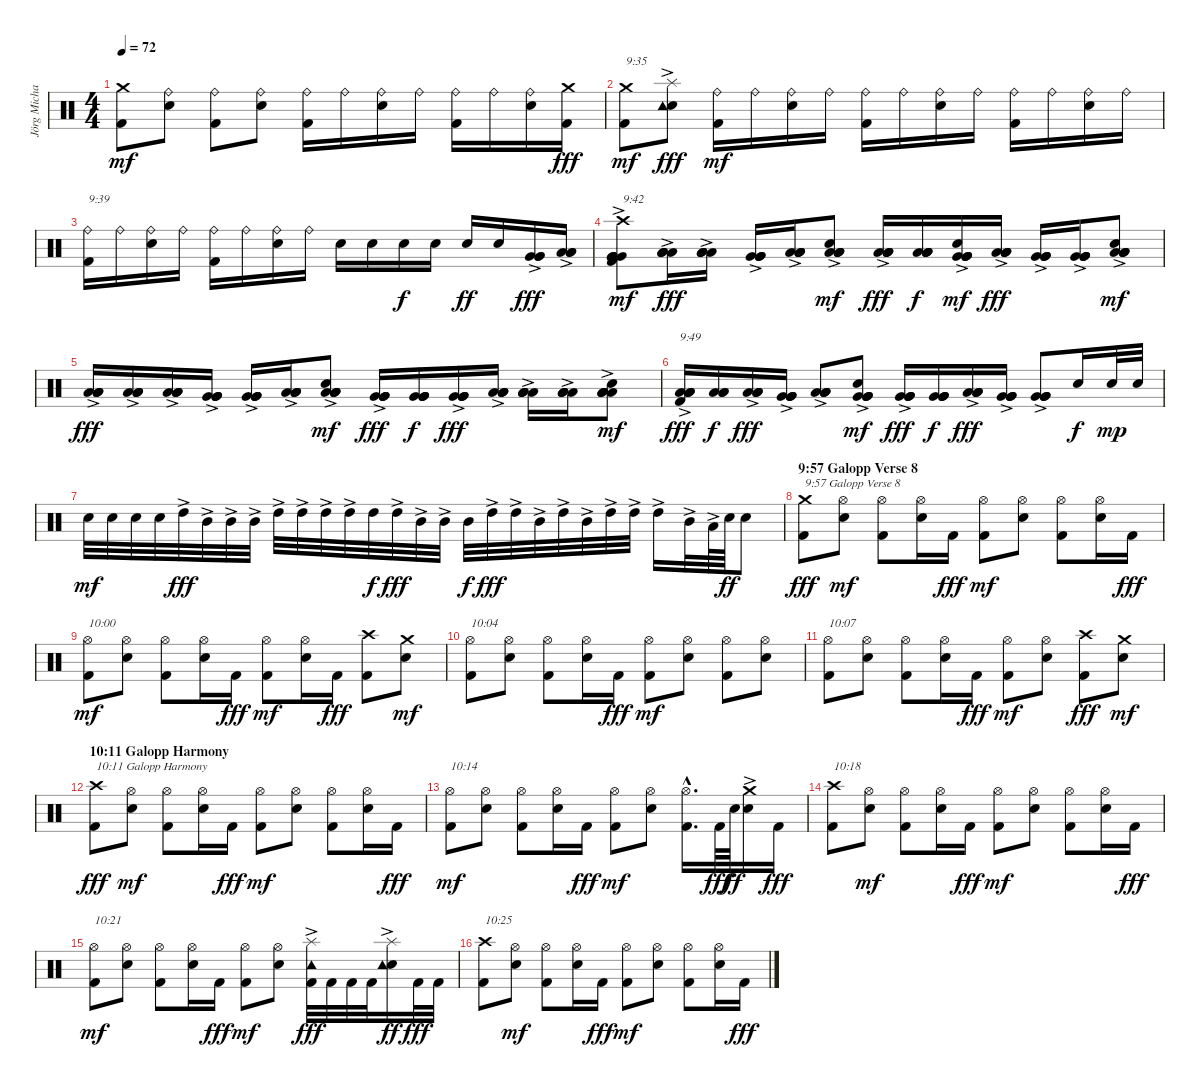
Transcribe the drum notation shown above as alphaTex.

\track ("Jörg Michael" "Jörg Micha") {instrument percussion}
\staff {score}
\articulation defaults
\ts (4 4)
\tempo 72
\clef neutral
\ks c
("Kick (hit) 2" "Crash medium (hit)").8{dy mf} ("Snare (hit) 2" "Ride (bell)").8 ("Kick (hit) 2" "Ride (bell)").8 ("Snare (hit) 2" "Ride (bell)").8 ("Kick (hit) 2" "Ride (bell)").16 "Ride (bell)".16 ("Snare (hit) 2" "Ride (bell)").16 "Ride (bell)".16 ("Kick (hit) 2" "Ride (bell)").16 "Ride (bell)".16 ("Snare (hit) 2" "Ride (bell)").16 ("Kick (hit) 2" "Crash medium (hit)").16{dy fff} |
("Kick (hit) 2" "Crash medium (hit)").8{txt "9:35" dy mf} ("Snare (hit) 2" "Tambourine (hit)" "Splash (hit)"{ac}).8{dy fff} ("Kick (hit) 2" "Ride (bell)").16{dy mf} "Ride (bell)".16 ("Snare (hit) 2" "Ride (bell)").16 "Ride (bell)".16 ("Kick (hit) 2" "Ride (bell)").16 "Ride (bell)".16 ("Snare (hit) 2" "Ride (bell)").16 "Ride (bell)".16 ("Kick (hit) 2" "Ride (bell)").16 "Ride (bell)".16 ("Snare (hit) 2" "Ride (bell)").16 "Ride (bell)".16 |
("Kick (hit) 2" "Ride (bell)").16{txt "9:39"} "Ride (bell)".16 ("Snare (hit) 2" "Ride (bell)").16 "Ride (bell)".16 ("Kick (hit) 2" "Ride (bell)").16 "Ride (bell)".16 ("Snare (hit) 2" "Ride (bell)").16 "Ride (bell)".16 "Snare (hit) 2".16 "Snare (hit) 2".16 "Snare (hit) 2".16{dy f} "Snare (hit) 2".16 "Snare (hit) 2".16{dy ff} "Snare (hit) 2".16 ("Very Low Tom (hit)"{ac} "Very Low Tom (hit)"{ac} "Very Low Tom (hit)"{ac}).16{dy fff} ("Low Tom (hit)"{ac} "Low Tom (hit)"{ac} "Low Tom (hit)"{ac}).16 |
("Kick (hit) 2" "Very Low Tom (hit)"{ac} "Very Low Tom (hit)"{ac} "Very Low Tom (hit)"{ac} "Very Low Tom (hit)"{ac} "Crash high (hit)").8{txt "9:42" dy mf} ("Low Tom (hit)"{ac} "Low Tom (hit)"{ac} "Low Tom (hit)"{ac} "Low Tom (hit)"{ac}).16{dy fff} ("Low Tom (hit)"{ac} "Low Tom (hit)"{ac} "Low Tom (hit)"{ac} "Low Tom (hit)"{ac}).16 ("Very Low Tom (hit)"{ac} "Very Low Tom (hit)"{ac} "Very Low Tom (hit)"{ac} "Very Low Tom (hit)"{ac}).16 ("Low Tom (hit)"{ac} "Low Tom (hit)"{ac} "Low Tom (hit)"{ac} "Low Tom (hit)"{ac}).16 ("Low Tom (hit)"{ac} "Low Tom (hit)"{ac} "Low Tom (hit)"{ac} "Low Tom (hit)"{ac} "Snare (hit) 2").8{dy mf} ("Low Tom (hit)"{ac} "Low Tom (hit)"{ac} "Low Tom (hit)"{ac} "Low Tom (hit)"{ac}).16{dy fff} ("Low Tom (hit)" "Low Tom (hit)" "Low Tom (hit)" "Low Tom (hit)").16{dy f} ("Very Low Tom (hit)"{ac} "Very Low Tom (hit)"{ac} "Very Low Tom (hit)"{ac} "Very Low Tom (hit)"{ac} "Snare (hit) 2").16{dy mf} ("Low Tom (hit)"{ac} "Low Tom (hit)"{ac} "Low Tom (hit)"{ac} "Low Tom (hit)"{ac}).16{dy fff} ("Very Low Tom (hit)"{ac} "Very Low Tom (hit)"{ac} "Very Low Tom (hit)"{ac} "Very Low Tom (hit)"{ac}).16 ("Very Low Tom (hit)"{ac} "Very Low Tom (hit)"{ac} "Very Low Tom (hit)"{ac} "Very Low Tom (hit)"{ac}).16 ("Low Tom (hit)"{ac} "Low Tom (hit)"{ac} "Low Tom (hit)"{ac} "Low Tom (hit)"{ac} "Snare (hit) 2").8{dy mf} |
("Low Tom (hit)"{ac} "Low Tom (hit)"{ac} "Low Tom (hit)"{ac} "Low Tom (hit)"{ac}).16{dy fff} ("Low Tom (hit)"{ac} "Low Tom (hit)"{ac} "Low Tom (hit)"{ac} "Low Tom (hit)"{ac}).16 ("Low Tom (hit)"{ac} "Low Tom (hit)"{ac} "Low Tom (hit)"{ac} "Low Tom (hit)"{ac}).16 ("Very Low Tom (hit)"{ac} "Very Low Tom (hit)"{ac} "Very Low Tom (hit)"{ac} "Very Low Tom (hit)"{ac}).16 ("Very Low Tom (hit)"{ac} "Very Low Tom (hit)"{ac} "Very Low Tom (hit)"{ac} "Very Low Tom (hit)"{ac}).16 ("Low Tom (hit)"{ac} "Low Tom (hit)"{ac} "Low Tom (hit)"{ac} "Low Tom (hit)"{ac}).16 ("Low Tom (hit)"{ac} "Low Tom (hit)"{ac} "Low Tom (hit)"{ac} "Low Tom (hit)"{ac} "Snare (hit) 2").8{dy mf} ("Very Low Tom (hit)"{ac} "Very Low Tom (hit)"{ac} "Very Low Tom (hit)"{ac} "Very Low Tom (hit)"{ac}).16{dy fff} ("Very Low Tom (hit)" "Very Low Tom (hit)" "Very Low Tom (hit)" "Very Low Tom (hit)").16{dy f} ("Very Low Tom (hit)"{ac} "Very Low Tom (hit)"{ac} "Very Low Tom (hit)"{ac} "Very Low Tom (hit)"{ac}).16{dy fff} ("Low Tom (hit)"{ac} "Low Tom (hit)"{ac} "Low Tom (hit)"{ac} "Low Tom (hit)"{ac}).16 ("Low Tom (hit)"{ac} "Low Tom (hit)"{ac} "Low Tom (hit)"{ac} "Low Tom (hit)"{ac}).16 ("Low Tom (hit)"{ac} "Low Tom (hit)"{ac} "Low Tom (hit)"{ac} "Low Tom (hit)"{ac}).16 ("Low Tom (hit)"{ac} "Low Tom (hit)"{ac} "Low Tom (hit)"{ac} "Low Tom (hit)"{ac} "Snare (hit) 2").8{dy mf} |
("Kick (hit) 2" "Low Tom (hit)"{ac} "Low Tom (hit)"{ac} "Low Tom (hit)"{ac} "Low Tom (hit)"{ac}).16{txt "9:49" dy fff} ("Low Tom (hit)" "Low Tom (hit)" "Low Tom (hit)").16{dy f} ("Low Tom (hit)"{ac} "Low Tom (hit)"{ac} "Low Tom (hit)"{ac} "Low Tom (hit)"{ac}).16{dy fff} ("Very Low Tom (hit)"{ac} "Very Low Tom (hit)"{ac} "Very Low Tom (hit)"{ac} "Very Low Tom (hit)"{ac}).16 ("Low Tom (hit)"{ac} "Low Tom (hit)"{ac} "Low Tom (hit)"{ac} "Low Tom (hit)"{ac}).8 ("Very Low Tom (hit)"{ac} "Very Low Tom (hit)"{ac} "Very Low Tom (hit)"{ac} "Very Low Tom (hit)"{ac} "Snare (hit) 2").8{dy mf} ("Very Low Tom (hit)"{ac} "Very Low Tom (hit)"{ac} "Very Low Tom (hit)"{ac} "Very Low Tom (hit)"{ac}).16{dy fff} ("Very Low Tom (hit)" "Very Low Tom (hit)" "Very Low Tom (hit)" "Very Low Tom (hit)").16{dy f} ("Low Tom (hit)"{ac} "Low Tom (hit)"{ac} "Low Tom (hit)"{ac} "Low Tom (hit)"{ac}).16{dy fff} ("Very Low Tom (hit)"{ac} "Very Low Tom (hit)"{ac} "Very Low Tom (hit)"{ac} "Very Low Tom (hit)"{ac}).16 ("Very Low Tom (hit)"{ac} "Very Low Tom (hit)"{ac} "Very Low Tom (hit)"{ac} "Very Low Tom (hit)"{ac}).8 "Snare (hit) 2".16{dy f} "Snare (hit) 2".32{dy mp} "Snare (hit) 2".32 |
"Snare (hit) 2".32{dy mf} "Snare (hit) 2".32 "Snare (hit) 2".32 "Snare (hit) 2".32 "High Tom (hit)"{ac}.32{dy fff} "Mid Tom (hit)"{ac}.32 "Mid Tom (hit)"{ac}.32 "Mid Tom (hit)"{ac}.32 "High Tom (hit)"{ac}.32 "High Tom (hit)"{ac}.32 "High Tom (hit)"{ac}.32 "High Tom (hit)"{ac}.32 "High Tom (hit)".32{dy f} "High Tom (hit)"{ac}.32{dy fff} "Mid Tom (hit)"{ac}.32 "Mid Tom (hit)"{ac}.32 "Mid Tom (hit)".32{dy f} "High Tom (hit)"{ac}.32{dy fff} "High Tom (hit)"{ac}.32 "Mid Tom (hit)"{ac}.32 "High Tom (hit)"{ac}.32 "Mid Tom (hit)"{ac}.32 "High Tom (hit)"{ac}.32 "High Tom (hit)"{ac}.32 "High Tom (hit)"{ac}.16 "Mid Tom (hit)"{ac}.32 "Low Tom (hit)"{ac}.64 "Snare (hit) 2".64{dy ff} "Snare (hit) 2".8 |
\section ("" "9:57 Galopp Verse 8")
("Kick (hit) 2" "Crash medium (hit)").8{txt "9:57 Galopp Verse 8" dy fff} ("Snare (hit) 2" "Hi-Hat (open)").8{dy mf} ("Kick (hit) 2" "Hi-Hat (open)").8 ("Snare (hit) 2" "Hi-Hat (open)").16 "Kick (hit) 2".16{dy fff} ("Kick (hit) 2" "Hi-Hat (open)").8{dy mf} ("Snare (hit) 2" "Hi-Hat (open)").8 ("Kick (hit) 2" "Hi-Hat (open)").8 ("Snare (hit) 2" "Hi-Hat (open)").16 "Kick (hit) 2".16{dy fff} |
("Kick (hit) 2" "Hi-Hat (open)").8{txt "10:00" dy mf} ("Snare (hit) 2" "Hi-Hat (open)").8 ("Kick (hit) 2" "Hi-Hat (open)").8 ("Snare (hit) 2" "Hi-Hat (open)").16 "Kick (hit) 2".16{dy fff} ("Kick (hit) 2" "Hi-Hat (open)").8{dy mf} ("Snare (hit) 2" "Hi-Hat (open)").16 "Kick (hit) 2".16{dy fff} ("Kick (hit) 2" "Crash high (hit)").8 ("Snare (hit) 2" "Crash medium (hit)").8{dy mf} |
("Kick (hit) 2" "Hi-Hat (open)").8{txt "10:04"} ("Snare (hit) 2" "Hi-Hat (open)").8 ("Kick (hit) 2" "Hi-Hat (open)").8 ("Snare (hit) 2" "Hi-Hat (open)").16 "Kick (hit) 2".16{dy fff} ("Kick (hit) 2" "Hi-Hat (open)").8{dy mf} ("Snare (hit) 2" "Hi-Hat (open)").8 ("Kick (hit) 2" "Hi-Hat (open)").8 ("Snare (hit) 2" "Hi-Hat (open)").8 |
("Kick (hit) 2" "Hi-Hat (open)").8{txt "10:07"} ("Snare (hit) 2" "Hi-Hat (open)").8 ("Kick (hit) 2" "Hi-Hat (open)").8 ("Snare (hit) 2" "Hi-Hat (open)").16 "Kick (hit) 2".16{dy fff} ("Kick (hit) 2" "Hi-Hat (open)").8{dy mf} ("Snare (hit) 2" "Hi-Hat (open)").8 ("Kick (hit) 2" "Crash high (hit)").8{dy fff} ("Snare (hit) 2" "Crash medium (hit)").8{dy mf} |
\section ("" "10:11 Galopp Harmony")
("Kick (hit) 2" "Crash high (hit)").8{txt "10:11 Galopp Harmony" dy fff} ("Snare (hit) 2" "Hi-Hat (open)").8{dy mf} ("Kick (hit) 2" "Hi-Hat (open)").8 ("Snare (hit) 2" "Hi-Hat (open)").16 "Kick (hit) 2".16{dy fff} ("Kick (hit) 2" "Hi-Hat (open)").8{dy mf} ("Snare (hit) 2" "Hi-Hat (open)").8 ("Kick (hit) 2" "Hi-Hat (open)").8 ("Snare (hit) 2" "Hi-Hat (open)").16 "Kick (hit) 2".16{dy fff} |
("Kick (hit) 2" "Hi-Hat (open)").8{txt "10:14" dy mf} ("Snare (hit) 2" "Hi-Hat (open)").8 ("Kick (hit) 2" "Hi-Hat (open)").8 ("Snare (hit) 2" "Hi-Hat (open)").16 "Kick (hit) 2".16{dy fff} ("Kick (hit) 2" "Hi-Hat (open)").8{dy mf} ("Snare (hit) 2" "Hi-Hat (open)").8 ("Kick (hit) 2"{hac} "Hi-Hat (open)"{hac}).16{d} "Kick (hit) 2".64{dy fff} "Snare (hit) 2".64{dy ff} ("Snare (hit) 2" "Crash medium (hit)"{ac}).16 "Kick (hit) 2".16{dy fff} |
("Kick (hit) 2" "Crash high (hit)").8{txt "10:18"} ("Snare (hit) 2" "Hi-Hat (open)").8{dy mf} ("Kick (hit) 2" "Hi-Hat (open)").8 ("Snare (hit) 2" "Hi-Hat (open)").16 "Kick (hit) 2".16{dy fff} ("Kick (hit) 2" "Hi-Hat (open)").8{dy mf} ("Snare (hit) 2" "Hi-Hat (open)").8 ("Kick (hit) 2" "Hi-Hat (open)").8 ("Snare (hit) 2" "Hi-Hat (open)").16 "Kick (hit) 2".16{dy fff} |
("Kick (hit) 2" "Hi-Hat (open)").8{txt "10:21" dy mf} ("Snare (hit) 2" "Hi-Hat (open)").8 ("Kick (hit) 2" "Hi-Hat (open)").8 ("Snare (hit) 2" "Hi-Hat (open)").16 "Kick (hit) 2".16{dy fff} ("Kick (hit) 2" "Hi-Hat (open)").8{dy mf} ("Snare (hit) 2" "Hi-Hat (open)").8 ("Kick (hit) 2" "Tambourine (hit)" "Splash (hit)"{ac}).32{dy fff} "Kick (hit) 2".32 "Kick (hit) 2".32 "Kick (hit) 2".32 ("Snare (hit) 2" "Tambourine (hit)" "Splash (hit)"{ac}).16{dy ff} "Kick (hit) 2".32{dy fff} "Kick (hit) 2".32 |
("Kick (hit) 2" "Crash high (hit)").8{txt "10:25"} ("Snare (hit) 2" "Hi-Hat (open)").8{dy mf} ("Kick (hit) 2" "Hi-Hat (open)").8 ("Snare (hit) 2" "Hi-Hat (open)").16 "Kick (hit) 2".16{dy fff} ("Kick (hit) 2" "Hi-Hat (open)").8{dy mf} ("Snare (hit) 2" "Hi-Hat (open)").8 ("Kick (hit) 2" "Hi-Hat (open)").8 ("Snare (hit) 2" "Hi-Hat (open)").16 "Kick (hit) 2".16{dy fff}
